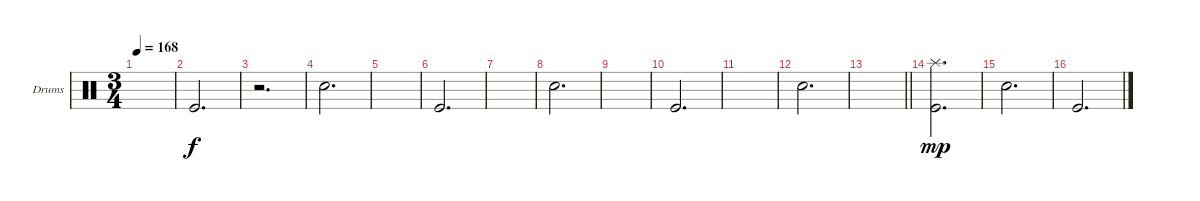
\defaultSystemsLayout 4
\bracketExtendMode groupsimilarinstruments
\firstSystemTrackNameOrientation horizontal
\otherSystemsTrackNameOrientation horizontal
\track ("Drumkit" "Drums") {instrument percussion}
\staff {score}
\articulation defaults
\ts (3 4)
\tempo 168
\clef neutral
\ks c
|
"Kick (hit)".2{d} |
r.2{d} |
"Snare (hit) 2".2{d} |
|
"Kick (hit)".2{d} |
|
"Snare (hit) 2".2{d} |
|
"Kick (hit)".2{d} |
|
"Snare (hit) 2".2{d} |
\barLineRight lightlight
|
("Kick (hit)" "Splash (hit)").2{d dy mp} |
"Snare (hit) 2".2{d} |
"Kick (hit)".2{d}
